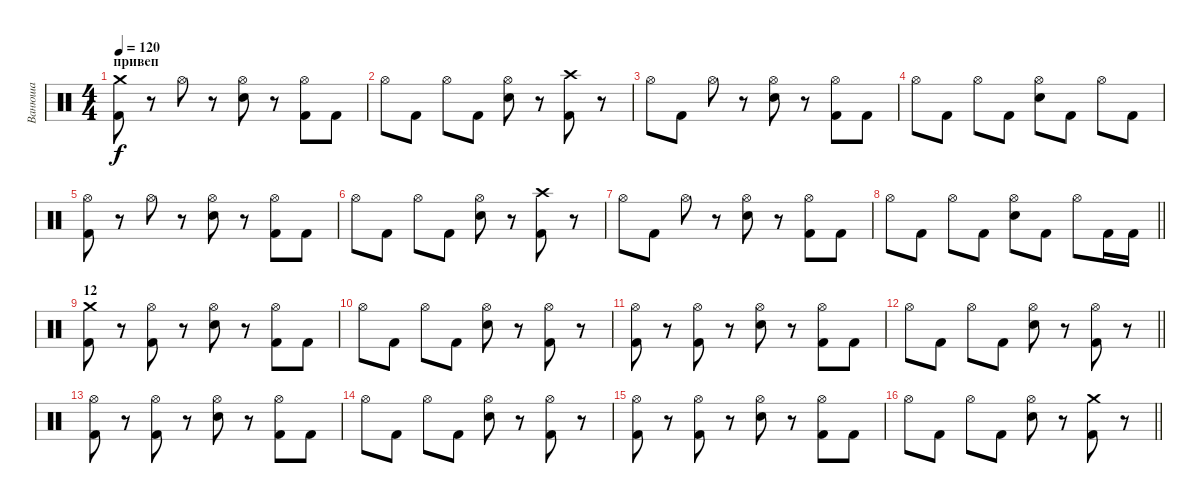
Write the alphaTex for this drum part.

\track ("Ванюша" "Ванюша") {instrument percussion}
\staff {score}
\articulation defaults
\ts (4 4)
\section ("" "привеп")
\tempo 120
\clef neutral
\ks c
("Crash medium (hit)" "Kick (hit) 2").8{dy f} r.8 "Hi-Hat (open)".8 r.8 ("Hi-Hat (open)" "Snare (hit) 2").8 r.8 ("Hi-Hat (open)" "Kick (hit) 2").8 "Kick (hit) 2".8 |
"Hi-Hat (open)".8 "Kick (hit) 2".8 "Hi-Hat (open)".8 "Kick (hit) 2".8 ("Hi-Hat (open)" "Snare (hit) 2").8 r.8 ("Crash high (hit)" "Kick (hit) 2").8 r.8 |
"Hi-Hat (open)".8 "Kick (hit) 2".8 "Hi-Hat (open)".8 r.8 ("Hi-Hat (open)" "Snare (hit) 2").8 r.8 ("Hi-Hat (open)" "Kick (hit) 2").8 "Kick (hit) 2".8 |
"Hi-Hat (open)".8 "Kick (hit) 2".8 "Hi-Hat (open)".8 "Kick (hit) 2".8 ("Hi-Hat (open)" "Snare (hit) 2").8 "Kick (hit) 2".8 "Hi-Hat (open)".8 "Kick (hit) 2".8 |
("Hi-Hat (open)" "Kick (hit) 2").8 r.8 "Hi-Hat (open)".8 r.8 ("Hi-Hat (open)" "Snare (hit) 2").8 r.8 ("Hi-Hat (open)" "Kick (hit) 2").8 "Kick (hit) 2".8 |
"Hi-Hat (open)".8 "Kick (hit) 2".8 "Hi-Hat (open)".8 "Kick (hit) 2".8 ("Hi-Hat (open)" "Snare (hit) 2").8 r.8 ("Crash high (hit)" "Kick (hit) 2").8 r.8 |
"Hi-Hat (open)".8 "Kick (hit) 2".8 "Hi-Hat (open)".8 r.8 ("Hi-Hat (open)" "Snare (hit) 2").8 r.8 ("Hi-Hat (open)" "Kick (hit) 2").8 "Kick (hit) 2".8 |
\barLineRight lightlight "Hi-Hat (open)".8 "Kick (hit) 2".8 "Hi-Hat (open)".8 "Kick (hit) 2".8
("Hi-Hat (open)" "Snare (hit) 2").8 "Kick (hit) 2".8 "Hi-Hat (open)".8 "Kick (hit) 2".16 "Kick (hit) 2".16 |
\section ("" "12")
("Crash medium (hit)" "Kick (hit) 2").8 r.8 ("Hi-Hat (open)" "Kick (hit) 2").8 r.8 ("Hi-Hat (open)" "Snare (hit) 2").8 r.8 ("Hi-Hat (open)" "Kick (hit) 2").8 "Kick (hit) 2".8 |
"Hi-Hat (open)".8 "Kick (hit) 2".8 "Hi-Hat (open)".8 "Kick (hit) 2".8 ("Hi-Hat (open)" "Snare (hit) 2").8 r.8 ("Hi-Hat (open)" "Kick (hit) 2").8 r.8 |
("Hi-Hat (open)" "Kick (hit) 2").8 r.8 ("Hi-Hat (open)" "Kick (hit) 2").8 r.8 ("Hi-Hat (open)" "Snare (hit) 2").8 r.8 ("Hi-Hat (open)" "Kick (hit) 2").8 "Kick (hit) 2".8 |
\barLineRight lightlight "Hi-Hat (open)".8 "Kick (hit) 2".8 "Hi-Hat (open)".8 "Kick (hit) 2".8
("Hi-Hat (open)" "Snare (hit) 2").8 r.8 ("Hi-Hat (open)" "Kick (hit) 2").8 r.8 |
("Hi-Hat (open)" "Kick (hit) 2").8 r.8 ("Hi-Hat (open)" "Kick (hit) 2").8 r.8 ("Hi-Hat (open)" "Snare (hit) 2").8 r.8 ("Hi-Hat (open)" "Kick (hit) 2").8 "Kick (hit) 2".8 |
"Hi-Hat (open)".8 "Kick (hit) 2".8 "Hi-Hat (open)".8 "Kick (hit) 2".8 ("Hi-Hat (open)" "Snare (hit) 2").8 r.8 ("Hi-Hat (open)" "Kick (hit) 2").8 r.8 |
("Hi-Hat (open)" "Kick (hit) 2").8 r.8 ("Hi-Hat (open)" "Kick (hit) 2").8 r.8 ("Hi-Hat (open)" "Snare (hit) 2").8 r.8 ("Hi-Hat (open)" "Kick (hit) 2").8 "Kick (hit) 2".8 |
\barLineRight lightlight "Hi-Hat (open)".8 "Kick (hit) 2".8 "Hi-Hat (open)".8 "Kick (hit) 2".8
("Hi-Hat (open)" "Snare (hit) 2").8 r.8 ("Crash medium (hit)" "Kick (hit) 2").8 r.8
